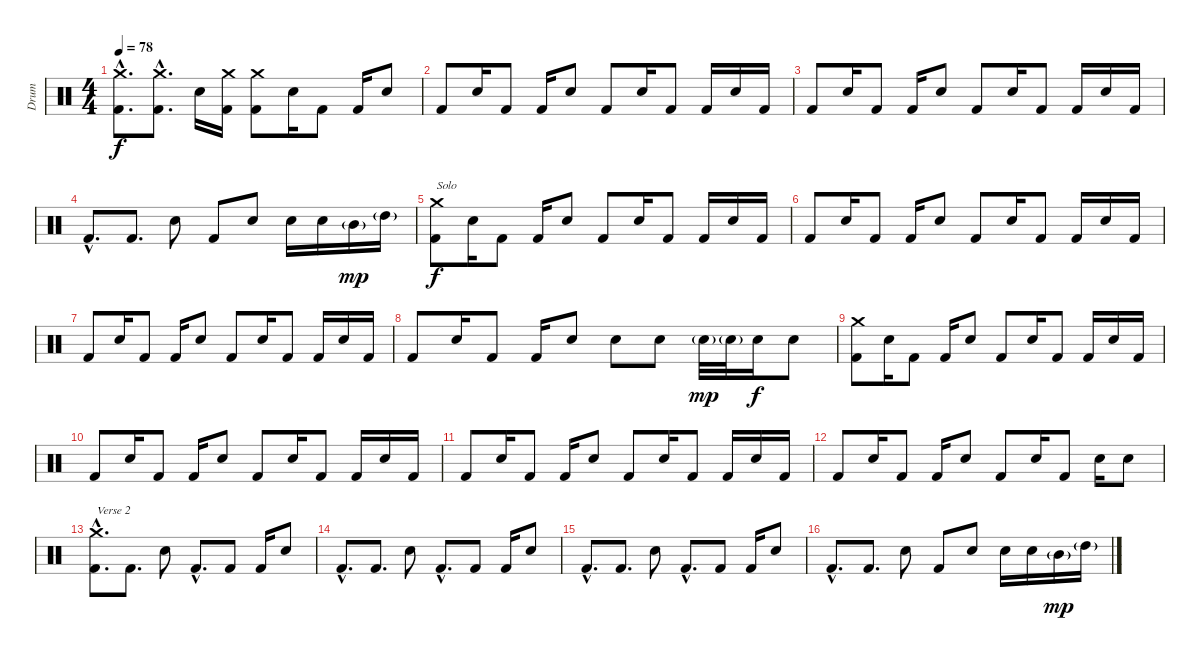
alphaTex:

\track ("Drum" "Drum") {instrument percussion}
\staff {score}
\articulation defaults
\ts (4 4)
\tempo 78
\clef neutral
\ks c
("Crash medium (hit)"{hac} "Kick (hit) 2"{hac}).8{d dy f} ("Crash medium (hit)"{hac} "Kick (hit) 2"{hac}).8{d} "Electric Snare (hit)".16 ("Crash medium (hit)" "Kick (hit) 2").16 ("Crash medium (hit)" "Kick (hit) 2").8 "Electric Snare (hit)".16 "Kick (hit) 2".8 "Kick (hit) 2".16 "Electric Snare (hit)".8 |
"Kick (hit) 2".8 "Electric Snare (hit)".16 "Kick (hit) 2".8 "Kick (hit) 2".16 "Electric Snare (hit)".8 "Kick (hit) 2".8 "Electric Snare (hit)".16 "Kick (hit) 2".8 "Kick (hit) 2".16 "Electric Snare (hit)".16 "Kick (hit) 2".16 |
"Kick (hit) 2".8 "Electric Snare (hit)".16 "Kick (hit) 2".8 "Kick (hit) 2".16 "Electric Snare (hit)".8 "Kick (hit) 2".8 "Electric Snare (hit)".16 "Kick (hit) 2".8 "Kick (hit) 2".16 "Electric Snare (hit)".16 "Kick (hit) 2".16 |
"Kick (hit) 2"{hac}.8{d} "Kick (hit) 2".8{d} "Electric Snare (hit)".8 "Kick (hit) 2".8 "Electric Snare (hit)".8 "Electric Snare (hit)".16 "Electric Snare (hit)".16 "Mid Tom (hit)"{g}.16{dy mp} "High Tom (hit)"{g}.16 |
("Crash medium (hit)" "Kick (hit) 2").8{txt "Solo" dy f} "Electric Snare (hit)".16 "Kick (hit) 2".8 "Kick (hit) 2".16 "Electric Snare (hit)".8 "Kick (hit) 2".8 "Electric Snare (hit)".16 "Kick (hit) 2".8 "Kick (hit) 2".16 "Electric Snare (hit)".16 "Kick (hit) 2".16 |
"Kick (hit) 2".8 "Electric Snare (hit)".16 "Kick (hit) 2".8 "Kick (hit) 2".16 "Electric Snare (hit)".8 "Kick (hit) 2".8 "Electric Snare (hit)".16 "Kick (hit) 2".8 "Kick (hit) 2".16 "Electric Snare (hit)".16 "Kick (hit) 2".16 |
"Kick (hit) 2".8 "Electric Snare (hit)".16 "Kick (hit) 2".8 "Kick (hit) 2".16 "Electric Snare (hit)".8 "Kick (hit) 2".8 "Electric Snare (hit)".16 "Kick (hit) 2".8 "Kick (hit) 2".16 "Electric Snare (hit)".16 "Kick (hit) 2".16 |
"Kick (hit) 2".8 "Electric Snare (hit)".16 "Kick (hit) 2".8 "Kick (hit) 2".16 "Electric Snare (hit)".8 "Electric Snare (hit)".8 "Electric Snare (hit)".8 "Electric Snare (hit)"{g}.32{dy mp} "Electric Snare (hit)"{g}.32 "Electric Snare (hit)".16{dy f} "Electric Snare (hit)".8 |
("Crash medium (hit)" "Kick (hit) 2").8 "Electric Snare (hit)".16 "Kick (hit) 2".8 "Kick (hit) 2".16 "Electric Snare (hit)".8 "Kick (hit) 2".8 "Electric Snare (hit)".16 "Kick (hit) 2".8 "Kick (hit) 2".16 "Electric Snare (hit)".16 "Kick (hit) 2".16 |
"Kick (hit) 2".8 "Electric Snare (hit)".16 "Kick (hit) 2".8 "Kick (hit) 2".16 "Electric Snare (hit)".8 "Kick (hit) 2".8 "Electric Snare (hit)".16 "Kick (hit) 2".8 "Kick (hit) 2".16 "Electric Snare (hit)".16 "Kick (hit) 2".16 |
"Kick (hit) 2".8 "Electric Snare (hit)".16 "Kick (hit) 2".8 "Kick (hit) 2".16 "Electric Snare (hit)".8 "Kick (hit) 2".8 "Electric Snare (hit)".16 "Kick (hit) 2".8 "Kick (hit) 2".16 "Electric Snare (hit)".16 "Kick (hit) 2".16 |
"Kick (hit) 2".8 "Electric Snare (hit)".16 "Kick (hit) 2".8 "Kick (hit) 2".16 "Electric Snare (hit)".8 "Kick (hit) 2".8 "Electric Snare (hit)".16 "Kick (hit) 2".8 "Electric Snare (hit)".16 "Electric Snare (hit)".8 |
("Crash medium (hit)"{hac} "Kick (hit) 2"{hac}).8{d txt "Verse 2"} "Kick (hit) 2".8{d} "Electric Snare (hit)".8 "Kick (hit) 2"{hac}.8{d} "Kick (hit) 2".8 "Kick (hit) 2".16 "Electric Snare (hit)".8 |
"Kick (hit) 2"{hac}.8{d} "Kick (hit) 2".8{d} "Electric Snare (hit)".8 "Kick (hit) 2"{hac}.8{d} "Kick (hit) 2".8 "Kick (hit) 2".16 "Electric Snare (hit)".8 |
"Kick (hit) 2"{hac}.8{d} "Kick (hit) 2".8{d} "Electric Snare (hit)".8 "Kick (hit) 2"{hac}.8{d} "Kick (hit) 2".8 "Kick (hit) 2".16 "Electric Snare (hit)".8 |
"Kick (hit) 2"{hac}.8{d} "Kick (hit) 2".8{d} "Electric Snare (hit)".8 "Kick (hit) 2".8 "Electric Snare (hit)".8 "Electric Snare (hit)".16 "Electric Snare (hit)".16 "Mid Tom (hit)"{g}.16{dy mp} "High Tom (hit)"{g}.16
